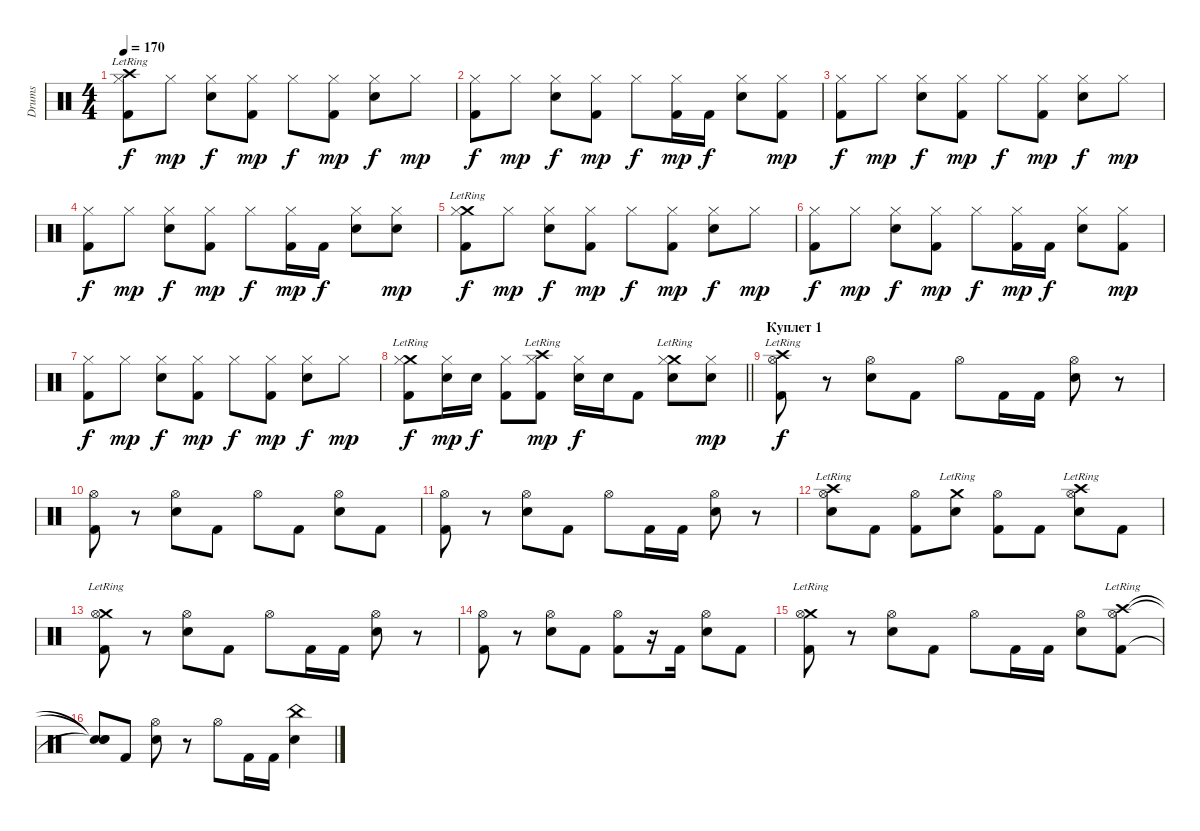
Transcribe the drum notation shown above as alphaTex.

\track ("Drums" "Drums") {instrument percussion}
\staff {score}
\articulation defaults
\ts (4 4)
\tempo 170
\clef neutral
\ks c
("Crash high (hit)"{lr} "Kick (hit) 2" "Hi-Hat (closed)").8{dy f} "Hi-Hat (closed)".8{dy mp} ("Electric Snare (hit)" "Hi-Hat (closed)").8{dy f} ("Kick (hit) 2" "Hi-Hat (closed)").8{dy mp} "Hi-Hat (closed)".8{dy f} ("Kick (hit) 2" "Hi-Hat (closed)").8{dy mp} ("Electric Snare (hit)" "Hi-Hat (closed)").8{dy f} "Hi-Hat (closed)".8{dy mp} |
("Kick (hit) 2" "Hi-Hat (closed)").8{dy f} "Hi-Hat (closed)".8{dy mp} ("Electric Snare (hit)" "Hi-Hat (closed)").8{dy f} ("Kick (hit) 2" "Hi-Hat (closed)").8{dy mp} "Hi-Hat (closed)".8{dy f} ("Kick (hit) 2" "Hi-Hat (closed)").16{dy mp} "Kick (hit) 2".16{dy f} ("Electric Snare (hit)" "Hi-Hat (closed)").8 ("Kick (hit) 2" "Hi-Hat (closed)").8{dy mp} |
("Kick (hit) 2" "Hi-Hat (closed)").8{dy f} "Hi-Hat (closed)".8{dy mp} ("Electric Snare (hit)" "Hi-Hat (closed)").8{dy f} ("Kick (hit) 2" "Hi-Hat (closed)").8{dy mp} "Hi-Hat (closed)".8{dy f} ("Kick (hit) 2" "Hi-Hat (closed)").8{dy mp} ("Electric Snare (hit)" "Hi-Hat (closed)").8{dy f} "Hi-Hat (closed)".8{dy mp} |
("Kick (hit) 2" "Hi-Hat (closed)").8{dy f} "Hi-Hat (closed)".8{dy mp} ("Electric Snare (hit)" "Hi-Hat (closed)").8{dy f} ("Kick (hit) 2" "Hi-Hat (closed)").8{dy mp} "Hi-Hat (closed)".8{dy f} ("Kick (hit) 2" "Hi-Hat (closed)").16{dy mp} "Kick (hit) 2".16{dy f} ("Electric Snare (hit)" "Hi-Hat (closed)").8 ("Electric Snare (hit)" "Hi-Hat (closed)").8{dy mp} |
("Crash medium (hit)"{lr} "Kick (hit) 2" "Hi-Hat (closed)").8{dy f} "Hi-Hat (closed)".8{dy mp} ("Electric Snare (hit)" "Hi-Hat (closed)").8{dy f} ("Kick (hit) 2" "Hi-Hat (closed)").8{dy mp} "Hi-Hat (closed)".8{dy f} ("Kick (hit) 2" "Hi-Hat (closed)").8{dy mp} ("Electric Snare (hit)" "Hi-Hat (closed)").8{dy f} "Hi-Hat (closed)".8{dy mp} |
("Kick (hit) 2" "Hi-Hat (closed)").8{dy f} "Hi-Hat (closed)".8{dy mp} ("Electric Snare (hit)" "Hi-Hat (closed)").8{dy f} ("Kick (hit) 2" "Hi-Hat (closed)").8{dy mp} "Hi-Hat (closed)".8{dy f} ("Kick (hit) 2" "Hi-Hat (closed)").16{dy mp} "Kick (hit) 2".16{dy f} ("Electric Snare (hit)" "Hi-Hat (closed)").8 ("Kick (hit) 2" "Hi-Hat (closed)").8{dy mp} |
("Kick (hit) 2" "Hi-Hat (closed)").8{dy f} "Hi-Hat (closed)".8{dy mp} ("Electric Snare (hit)" "Hi-Hat (closed)").8{dy f} ("Kick (hit) 2" "Hi-Hat (closed)").8{dy mp} "Hi-Hat (closed)".8{dy f} ("Kick (hit) 2" "Hi-Hat (closed)").8{dy mp} ("Electric Snare (hit)" "Hi-Hat (closed)").8{dy f} "Hi-Hat (closed)".8{dy mp} |
\barLineRight lightlight
("Crash medium (hit)"{lr} "Kick (hit) 2" "Hi-Hat (closed)").8{dy f} ("Electric Snare (hit)" "Hi-Hat (closed)").16{dy mp} "Electric Snare (hit)".16{dy f} ("Kick (hit) 2" "Hi-Hat (closed)").8 ("Crash high (hit)"{lr} "Kick (hit) 2" "Hi-Hat (closed)").8{dy mp} ("Electric Snare (hit)" "Hi-Hat (closed)").16{dy f} "Electric Snare (hit)".16 "Kick (hit) 2".8 ("Crash medium (hit)"{lr} "Electric Snare (hit)" "Hi-Hat (closed)").8 ("Electric Snare (hit)" "Hi-Hat (closed)").8{dy mp} |
\section ("" "Куплет 1")
("Crash high (hit)"{lr} "Kick (hit) 2" "Hi-Hat (open)").8{dy f} r.8 ("Electric Snare (hit)" "Hi-Hat (open)").8 "Kick (hit) 2".8 "Hi-Hat (open)".8 "Kick (hit) 2".16 "Kick (hit) 2".16 ("Electric Snare (hit)" "Hi-Hat (open)").8 r.8 |
("Kick (hit) 2" "Hi-Hat (open)").8 r.8 ("Electric Snare (hit)" "Hi-Hat (open)").8 "Kick (hit) 2".8 "Hi-Hat (open)".8 "Kick (hit) 2".8 ("Electric Snare (hit)" "Hi-Hat (open)").8 "Kick (hit) 2".8 |
("Kick (hit) 2" "Hi-Hat (open)").8 r.8 ("Electric Snare (hit)" "Hi-Hat (open)").8 "Kick (hit) 2".8 "Hi-Hat (open)".8 "Kick (hit) 2".16 "Kick (hit) 2".16 ("Electric Snare (hit)" "Hi-Hat (open)").8 r.8 |
("Crash high (hit)"{lr} "Electric Snare (hit)" "Hi-Hat (open)").8 "Kick (hit) 2".8 ("Kick (hit) 2" "Hi-Hat (open)").8 ("Crash medium (hit)"{lr} "Electric Snare (hit)").8 ("Kick (hit) 2" "Hi-Hat (open)").8 "Kick (hit) 2".8 ("Crash high (hit)"{lr} "Electric Snare (hit)" "Hi-Hat (open)").8 "Kick (hit) 2".8 |
("Crash medium (hit)"{lr} "Kick (hit) 2" "Hi-Hat (open)").8 r.8 ("Electric Snare (hit)" "Hi-Hat (open)").8 "Kick (hit) 2".8 "Hi-Hat (open)".8 "Kick (hit) 2".16 "Kick (hit) 2".16 ("Electric Snare (hit)" "Hi-Hat (open)").8 r.8 |
("Kick (hit) 2" "Hi-Hat (open)").8 r.8 ("Electric Snare (hit)" "Hi-Hat (open)").8 "Kick (hit) 2".8 ("Kick (hit) 2" "Hi-Hat (open)").8 r.16 "Kick (hit) 2".16 ("Electric Snare (hit)" "Hi-Hat (open)").8 "Kick (hit) 2".8 |
("Crash medium (hit)"{lr} "Kick (hit) 2" "Hi-Hat (open)").8 r.8 ("Electric Snare (hit)" "Hi-Hat (open)").8 "Kick (hit) 2".8 "Hi-Hat (open)".8 "Kick (hit) 2".16 "Kick (hit) 2".16 ("Electric Snare (hit)" "Hi-Hat (open)").8 ("Crash high (hit)"{lr} "Kick (hit) 2" "Hi-Hat (open)").8 |
("Snare (hit)"{t} "Snare (hit)"{t} "Snare (hit)"{t}).8 "Kick (hit) 2".8 ("Electric Snare (hit)" "Hi-Hat (open)").8 r.8 "Hi-Hat (open)".8 "Kick (hit) 2".16 "Kick (hit) 2".16 ("China (hit)" "Electric Snare (hit)").4
